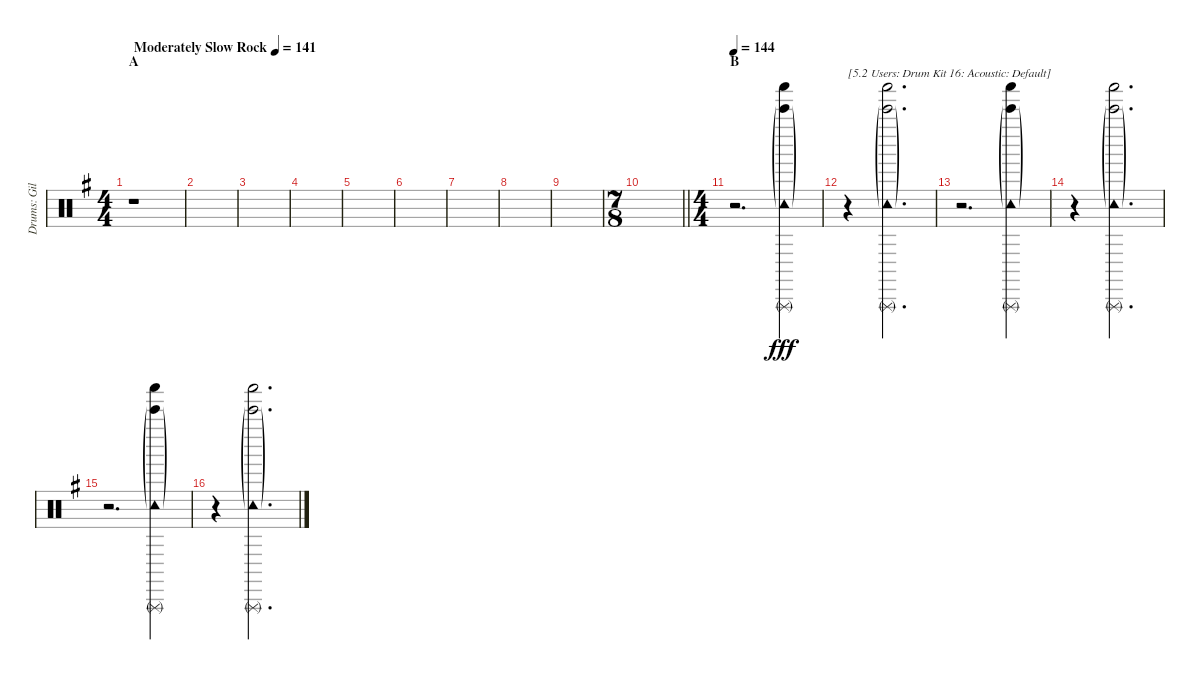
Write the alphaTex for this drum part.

\track ("Drums: Gil" "Drums: Gil") {instrument percussion}
\staff {score}
\articulation defaults
\ts (4 4)
\section ("" "A")
\tempo (141 "Moderately Slow Rock")
\tempo 115
\tempo (141 "Moderately Slow Rock")
\clef neutral
\ks g
r.1{dy fff} |
|
|
|
|
|
|
|
|
\ts (7 8)
\barLineRight lightlight
|
\ts (4 4)
\section ("" "B")
\tempo 144
r.2{d} ("Bell Tree (hit)"{g} "Triangle (rnute)" "Shaker (hit)" "Tambourine (hit)"{g}).4 |
r.4{txt "[5.2 Users: Drum Kit 16: Acoustic: Default]"} ("Bell Tree (hit)"{g} "Triangle (rnute)" "Shaker (hit)" "Tambourine (hit)"{g}).2{d} |
r.2{d} ("Bell Tree (hit)"{g} "Triangle (rnute)" "Shaker (hit)" "Tambourine (hit)"{g}).4 |
r.4 ("Bell Tree (hit)"{g} "Triangle (rnute)" "Shaker (hit)" "Tambourine (hit)"{g}).2{d} |
r.2{d} ("Bell Tree (hit)"{g} "Triangle (rnute)" "Shaker (hit)" "Tambourine (hit)"{g}).4 |
r.4 ("Bell Tree (hit)"{g} "Triangle (rnute)" "Shaker (hit)" "Tambourine (hit)"{g}).2{d}
